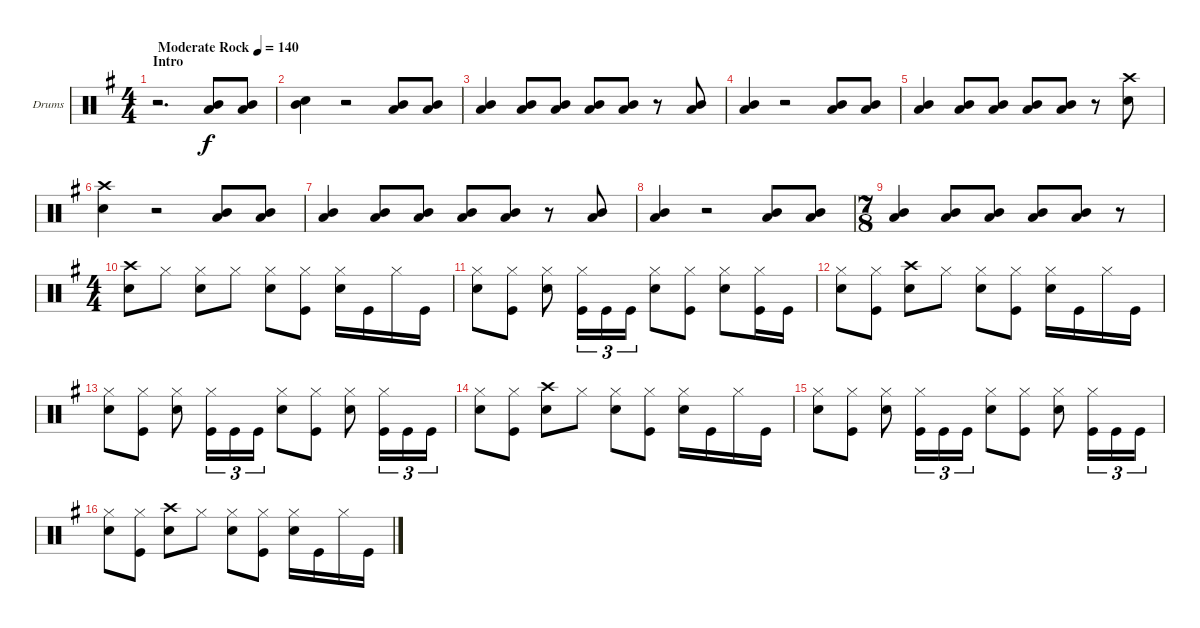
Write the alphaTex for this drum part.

\bracketExtendMode groupsimilarinstruments
\firstSystemTrackNameOrientation horizontal
\otherSystemsTrackNameOrientation horizontal
\track ("Drumkit" "Drums") {instrument percussion}
\staff {score}
\articulation defaults
\ts (4 4)
\section ("" "Intro")
\tempo (140 "Moderate Rock")
\clef neutral
\scale
1.07314
\ks g
r.2{d dy f} ("Low Tom (hit)" "Mid Tom (hit)").8 ("Low Tom (hit)" "Mid Tom (hit)").8 |
\scale
0.92686 ("Snare (hit) 2" "Mid Tom (hit)").4 r.2 ("Low Tom (hit)" "Mid Tom (hit)").8 ("Low Tom (hit)" "Mid Tom (hit)").8 |
\scale
1.04288 ("Low Tom (hit)" "Mid Tom (hit)").4 ("Low Tom (hit)" "Mid Tom (hit)").8 ("Low Tom (hit)" "Mid Tom (hit)").8 ("Low Tom (hit)" "Mid Tom (hit)").8 ("Low Tom (hit)" "Mid Tom (hit)").8 r.8 ("Low Tom (hit)" "Mid Tom (hit)").8 |
\scale
0.957125 ("Low Tom (hit)" "Mid Tom (hit)").4 r.2 ("Low Tom (hit)" "Mid Tom (hit)").8 ("Low Tom (hit)" "Mid Tom (hit)").8 |
\scale
1.04288 ("Low Tom (hit)" "Mid Tom (hit)").4 ("Low Tom (hit)" "Mid Tom (hit)").8 ("Low Tom (hit)" "Mid Tom (hit)").8 ("Low Tom (hit)" "Mid Tom (hit)").8 ("Low Tom (hit)" "Mid Tom (hit)").8 r.8 ("Snare (hit) 2" "Crash high (hit)").8 |
\scale
0.957125 ("Snare (hit) 2" "Crash high (hit)").4 r.2 ("Low Tom (hit)" "Mid Tom (hit)").8 ("Low Tom (hit)" "Mid Tom (hit)").8 |
\scale
1.04288 ("Low Tom (hit)" "Mid Tom (hit)").4 ("Low Tom (hit)" "Mid Tom (hit)").8 ("Low Tom (hit)" "Mid Tom (hit)").8 ("Low Tom (hit)" "Mid Tom (hit)").8 ("Low Tom (hit)" "Mid Tom (hit)").8 r.8 ("Low Tom (hit)" "Mid Tom (hit)").8 |
\scale
0.957125 ("Low Tom (hit)" "Mid Tom (hit)").4 r.2 ("Low Tom (hit)" "Mid Tom (hit)").8 ("Low Tom (hit)" "Mid Tom (hit)").8 |
\ts (7 8)
\scale
1.07314 ("Low Tom (hit)" "Mid Tom (hit)").4 ("Low Tom (hit)" "Mid Tom (hit)").8 ("Low Tom (hit)" "Mid Tom (hit)").8 ("Low Tom (hit)" "Mid Tom (hit)").8 ("Low Tom (hit)" "Mid Tom (hit)").8 r.8 |
\ts (4 4)
\scale
0.92686 ("Snare (hit) 2" "Crash high (hit)").8 "Hi-Hat (closed)".8 ("Snare (hit) 2" "Hi-Hat (closed)").8 "Hi-Hat (closed)".8 ("Snare (hit) 2" "Hi-Hat (closed)").8 ("Hi-Hat (closed)" "Kick (hit)").8 ("Snare (hit) 2" "Hi-Hat (closed)").16 "Kick (hit)".16 "Hi-Hat (closed)".16 "Kick (hit)".16 |
\scale
1.04288 ("Hi-Hat (closed)" "Snare (hit) 2").8 ("Hi-Hat (closed)" "Kick (hit)").8 ("Snare (hit) 2" "Hi-Hat (closed)").8 ("Hi-Hat (closed)" "Kick (hit)").16{tu (3 2)} "Kick (hit)".16{tu (3 2)} "Kick (hit)".16{tu (3 2)} ("Hi-Hat (closed)" "Snare (hit) 2").8 ("Hi-Hat (closed)" "Kick (hit)").8 ("Snare (hit) 2" "Hi-Hat (closed)").8 ("Hi-Hat (closed)" "Kick (hit)").16 "Kick (hit)".16 |
\scale
0.957125 ("Hi-Hat (closed)" "Snare (hit) 2").8 ("Kick (hit)" "Hi-Hat (closed)").8 ("Crash high (hit)" "Snare (hit) 2").8 "Hi-Hat (closed)".8 ("Snare (hit) 2" "Hi-Hat (closed)").8 ("Hi-Hat (closed)" "Kick (hit)").8 ("Snare (hit) 2" "Hi-Hat (closed)").16 "Kick (hit)".16 "Hi-Hat (closed)".16 "Kick (hit)".16 |
\scale
1.04288 ("Hi-Hat (closed)" "Snare (hit) 2").8 ("Kick (hit)" "Hi-Hat (closed)").8 ("Snare (hit) 2" "Hi-Hat (closed)").8 ("Hi-Hat (closed)" "Kick (hit)").16{tu (3 2)} "Kick (hit)".16{tu (3 2)} "Kick (hit)".16{tu (3 2)} ("Snare (hit) 2" "Hi-Hat (closed)").8 ("Kick (hit)" "Hi-Hat (closed)").8 ("Snare (hit) 2" "Hi-Hat (closed)").8 ("Hi-Hat (closed)" "Kick (hit)").16{tu (3 2)} "Kick (hit)".16{tu (3 2)} "Kick (hit)".16{tu (3 2)} |
\scale
0.957125 ("Hi-Hat (closed)" "Snare (hit) 2").8 ("Kick (hit)" "Hi-Hat (closed)").8 ("Crash high (hit)" "Snare (hit) 2").8 "Hi-Hat (closed)".8 ("Snare (hit) 2" "Hi-Hat (closed)").8 ("Hi-Hat (closed)" "Kick (hit)").8 ("Snare (hit) 2" "Hi-Hat (closed)").16 "Kick (hit)".16 "Hi-Hat (closed)".16 "Kick (hit)".16 |
\scale
1.04288 ("Hi-Hat (closed)" "Snare (hit) 2").8 ("Kick (hit)" "Hi-Hat (closed)").8 ("Snare (hit) 2" "Hi-Hat (closed)").8 ("Hi-Hat (closed)" "Kick (hit)").16{tu (3 2)} "Kick (hit)".16{tu (3 2)} "Kick (hit)".16{tu (3 2)} ("Snare (hit) 2" "Hi-Hat (closed)").8 ("Kick (hit)" "Hi-Hat (closed)").8 ("Snare (hit) 2" "Hi-Hat (closed)").8 ("Hi-Hat (closed)" "Kick (hit)").16{tu (3 2)} "Kick (hit)".16{tu (3 2)} "Kick (hit)".16{tu (3 2)} |
\scale
0.957125 ("Hi-Hat (closed)" "Snare (hit) 2").8 ("Kick (hit)" "Hi-Hat (closed)").8 ("Crash high (hit)" "Snare (hit) 2").8 "Hi-Hat (closed)".8 ("Snare (hit) 2" "Hi-Hat (closed)").8 ("Hi-Hat (closed)" "Kick (hit)").8 ("Snare (hit) 2" "Hi-Hat (closed)").16 "Kick (hit)".16 "Hi-Hat (closed)".16 "Kick (hit)".16
